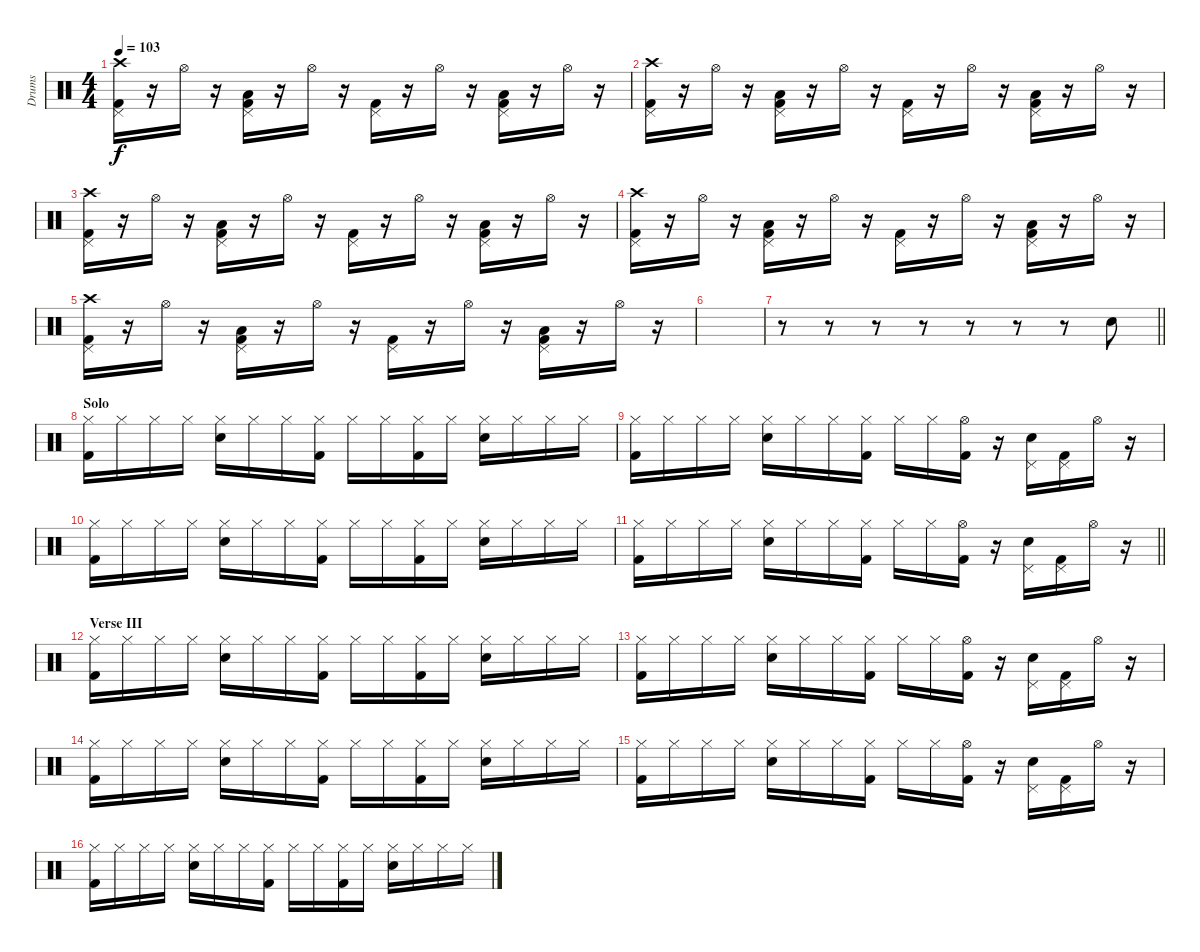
\track ("Drums" "Drums") {instrument percussion}
\staff {score}
\articulation defaults
\ts (4 4)
\tempo 103
\clef neutral
\ks c
("Crash high (hit)" "Pedal Hi-Hat (hit)" "Kick (hit) 2").16{dy f} r.16 "Hi-Hat (open)".16 r.16 ("Pedal Hi-Hat (hit)" "Low Floor Tom (hit)" "Kick (hit) 2").16 r.16 "Hi-Hat (open)".16 r.16 ("Pedal Hi-Hat (hit)" "Kick (hit) 2").16 r.16 "Hi-Hat (open)".16 r.16 ("Pedal Hi-Hat (hit)" "Low Floor Tom (hit)" "Kick (hit) 2").16 r.16 "Hi-Hat (open)".16 r.16 |
("Crash high (hit)" "Pedal Hi-Hat (hit)" "Kick (hit) 2").16 r.16 "Hi-Hat (open)".16 r.16 ("Pedal Hi-Hat (hit)" "Low Floor Tom (hit)" "Kick (hit) 2").16 r.16 "Hi-Hat (open)".16 r.16 ("Pedal Hi-Hat (hit)" "Kick (hit) 2").16 r.16 "Hi-Hat (open)".16 r.16 ("Pedal Hi-Hat (hit)" "Low Floor Tom (hit)" "Kick (hit) 2").16 r.16 "Hi-Hat (open)".16 r.16 |
("Crash high (hit)" "Pedal Hi-Hat (hit)" "Kick (hit) 2").16 r.16 "Hi-Hat (open)".16 r.16 ("Pedal Hi-Hat (hit)" "Low Floor Tom (hit)" "Kick (hit) 2").16 r.16 "Hi-Hat (open)".16 r.16 ("Pedal Hi-Hat (hit)" "Kick (hit) 2").16 r.16 "Hi-Hat (open)".16 r.16 ("Pedal Hi-Hat (hit)" "Low Floor Tom (hit)" "Kick (hit) 2").16 r.16 "Hi-Hat (open)".16 r.16 |
("Crash high (hit)" "Pedal Hi-Hat (hit)" "Kick (hit) 2").16 r.16 "Hi-Hat (open)".16 r.16 ("Pedal Hi-Hat (hit)" "Low Floor Tom (hit)" "Kick (hit) 2").16 r.16 "Hi-Hat (open)".16 r.16 ("Pedal Hi-Hat (hit)" "Kick (hit) 2").16 r.16 "Hi-Hat (open)".16 r.16 ("Pedal Hi-Hat (hit)" "Low Floor Tom (hit)" "Kick (hit) 2").16 r.16 "Hi-Hat (open)".16 r.16 |
("Crash high (hit)" "Pedal Hi-Hat (hit)" "Kick (hit) 2").16 r.16 "Hi-Hat (open)".16 r.16 ("Pedal Hi-Hat (hit)" "Low Floor Tom (hit)" "Kick (hit) 2").16 r.16 "Hi-Hat (open)".16 r.16 ("Pedal Hi-Hat (hit)" "Kick (hit) 2").16 r.16 "Hi-Hat (open)".16 r.16 ("Pedal Hi-Hat (hit)" "Low Floor Tom (hit)" "Kick (hit) 2").16 r.16 "Hi-Hat (open)".16 r.16 |
|
\barLineRight lightlight
r.8 r.8 r.8 r.8 r.8 r.8 r.8 "Electric Snare (hit)".8 |
\section ("" "Solo")
("Hi-Hat (closed)" "Kick (hit) 2").16 "Hi-Hat (closed)".16 "Hi-Hat (closed)".16 "Hi-Hat (closed)".16 ("Hi-Hat (closed)" "Electric Snare (hit)").16 "Hi-Hat (closed)".16 "Hi-Hat (closed)".16 ("Hi-Hat (closed)" "Kick (hit) 2").16 "Hi-Hat (closed)".16 "Hi-Hat (closed)".16 ("Hi-Hat (closed)" "Kick (hit) 2").16 "Hi-Hat (closed)".16 ("Hi-Hat (closed)" "Electric Snare (hit)").16 "Hi-Hat (closed)".16 "Hi-Hat (closed)".16 "Hi-Hat (closed)".16 |
("Hi-Hat (closed)" "Kick (hit) 2").16 "Hi-Hat (closed)".16 "Hi-Hat (closed)".16 "Hi-Hat (closed)".16 ("Hi-Hat (closed)" "Electric Snare (hit)").16 "Hi-Hat (closed)".16 "Hi-Hat (closed)".16 ("Hi-Hat (closed)" "Kick (hit) 2").16 "Hi-Hat (closed)".16 "Hi-Hat (closed)".16 ("Hi-Hat (open)" "Kick (hit) 2").16 r.16 ("Pedal Hi-Hat (hit)" "Electric Snare (hit)").16 ("Pedal Hi-Hat (hit)" "Kick (hit) 2").16 "Hi-Hat (open)".16 r.16 |
("Hi-Hat (closed)" "Kick (hit) 2").16 "Hi-Hat (closed)".16 "Hi-Hat (closed)".16 "Hi-Hat (closed)".16 ("Hi-Hat (closed)" "Electric Snare (hit)").16 "Hi-Hat (closed)".16 "Hi-Hat (closed)".16 ("Hi-Hat (closed)" "Kick (hit) 2").16 "Hi-Hat (closed)".16 "Hi-Hat (closed)".16 ("Hi-Hat (closed)" "Kick (hit) 2").16 "Hi-Hat (closed)".16 ("Hi-Hat (closed)" "Electric Snare (hit)").16 "Hi-Hat (closed)".16 "Hi-Hat (closed)".16 "Hi-Hat (closed)".16 |
\barLineRight lightlight
("Hi-Hat (closed)" "Kick (hit) 2").16 "Hi-Hat (closed)".16 "Hi-Hat (closed)".16 "Hi-Hat (closed)".16 ("Hi-Hat (closed)" "Electric Snare (hit)").16 "Hi-Hat (closed)".16 "Hi-Hat (closed)".16 ("Hi-Hat (closed)" "Kick (hit) 2").16 "Hi-Hat (closed)".16 "Hi-Hat (closed)".16 ("Hi-Hat (open)" "Kick (hit) 2").16 r.16 ("Pedal Hi-Hat (hit)" "Electric Snare (hit)").16 ("Pedal Hi-Hat (hit)" "Kick (hit) 2").16 "Hi-Hat (open)".16 r.16 |
\section ("" "Verse III")
("Hi-Hat (closed)" "Kick (hit) 2").16 "Hi-Hat (closed)".16 "Hi-Hat (closed)".16 "Hi-Hat (closed)".16 ("Hi-Hat (closed)" "Electric Snare (hit)").16 "Hi-Hat (closed)".16 "Hi-Hat (closed)".16 ("Hi-Hat (closed)" "Kick (hit) 2").16 "Hi-Hat (closed)".16 "Hi-Hat (closed)".16 ("Hi-Hat (closed)" "Kick (hit) 2").16 "Hi-Hat (closed)".16 ("Hi-Hat (closed)" "Electric Snare (hit)").16 "Hi-Hat (closed)".16 "Hi-Hat (closed)".16 "Hi-Hat (closed)".16 |
("Hi-Hat (closed)" "Kick (hit) 2").16 "Hi-Hat (closed)".16 "Hi-Hat (closed)".16 "Hi-Hat (closed)".16 ("Hi-Hat (closed)" "Electric Snare (hit)").16 "Hi-Hat (closed)".16 "Hi-Hat (closed)".16 ("Hi-Hat (closed)" "Kick (hit) 2").16 "Hi-Hat (closed)".16 "Hi-Hat (closed)".16 ("Hi-Hat (open)" "Kick (hit) 2").16 r.16 ("Pedal Hi-Hat (hit)" "Electric Snare (hit)").16 ("Pedal Hi-Hat (hit)" "Kick (hit) 2").16 "Hi-Hat (open)".16 r.16 |
("Hi-Hat (closed)" "Kick (hit) 2").16 "Hi-Hat (closed)".16 "Hi-Hat (closed)".16 "Hi-Hat (closed)".16 ("Hi-Hat (closed)" "Electric Snare (hit)").16 "Hi-Hat (closed)".16 "Hi-Hat (closed)".16 ("Hi-Hat (closed)" "Kick (hit) 2").16 "Hi-Hat (closed)".16 "Hi-Hat (closed)".16 ("Hi-Hat (closed)" "Kick (hit) 2").16 "Hi-Hat (closed)".16 ("Hi-Hat (closed)" "Electric Snare (hit)").16 "Hi-Hat (closed)".16 "Hi-Hat (closed)".16 "Hi-Hat (closed)".16 |
("Hi-Hat (closed)" "Kick (hit) 2").16 "Hi-Hat (closed)".16 "Hi-Hat (closed)".16 "Hi-Hat (closed)".16 ("Hi-Hat (closed)" "Electric Snare (hit)").16 "Hi-Hat (closed)".16 "Hi-Hat (closed)".16 ("Hi-Hat (closed)" "Kick (hit) 2").16 "Hi-Hat (closed)".16 "Hi-Hat (closed)".16 ("Hi-Hat (open)" "Kick (hit) 2").16 r.16 ("Pedal Hi-Hat (hit)" "Electric Snare (hit)").16 ("Pedal Hi-Hat (hit)" "Kick (hit) 2").16 "Hi-Hat (open)".16 r.16 |
("Hi-Hat (closed)" "Kick (hit) 2").16 "Hi-Hat (closed)".16 "Hi-Hat (closed)".16 "Hi-Hat (closed)".16 ("Hi-Hat (closed)" "Electric Snare (hit)").16 "Hi-Hat (closed)".16 "Hi-Hat (closed)".16 ("Hi-Hat (closed)" "Kick (hit) 2").16 "Hi-Hat (closed)".16 "Hi-Hat (closed)".16 ("Hi-Hat (closed)" "Kick (hit) 2").16 "Hi-Hat (closed)".16 ("Hi-Hat (closed)" "Electric Snare (hit)").16 "Hi-Hat (closed)".16 "Hi-Hat (closed)".16 "Hi-Hat (closed)".16
